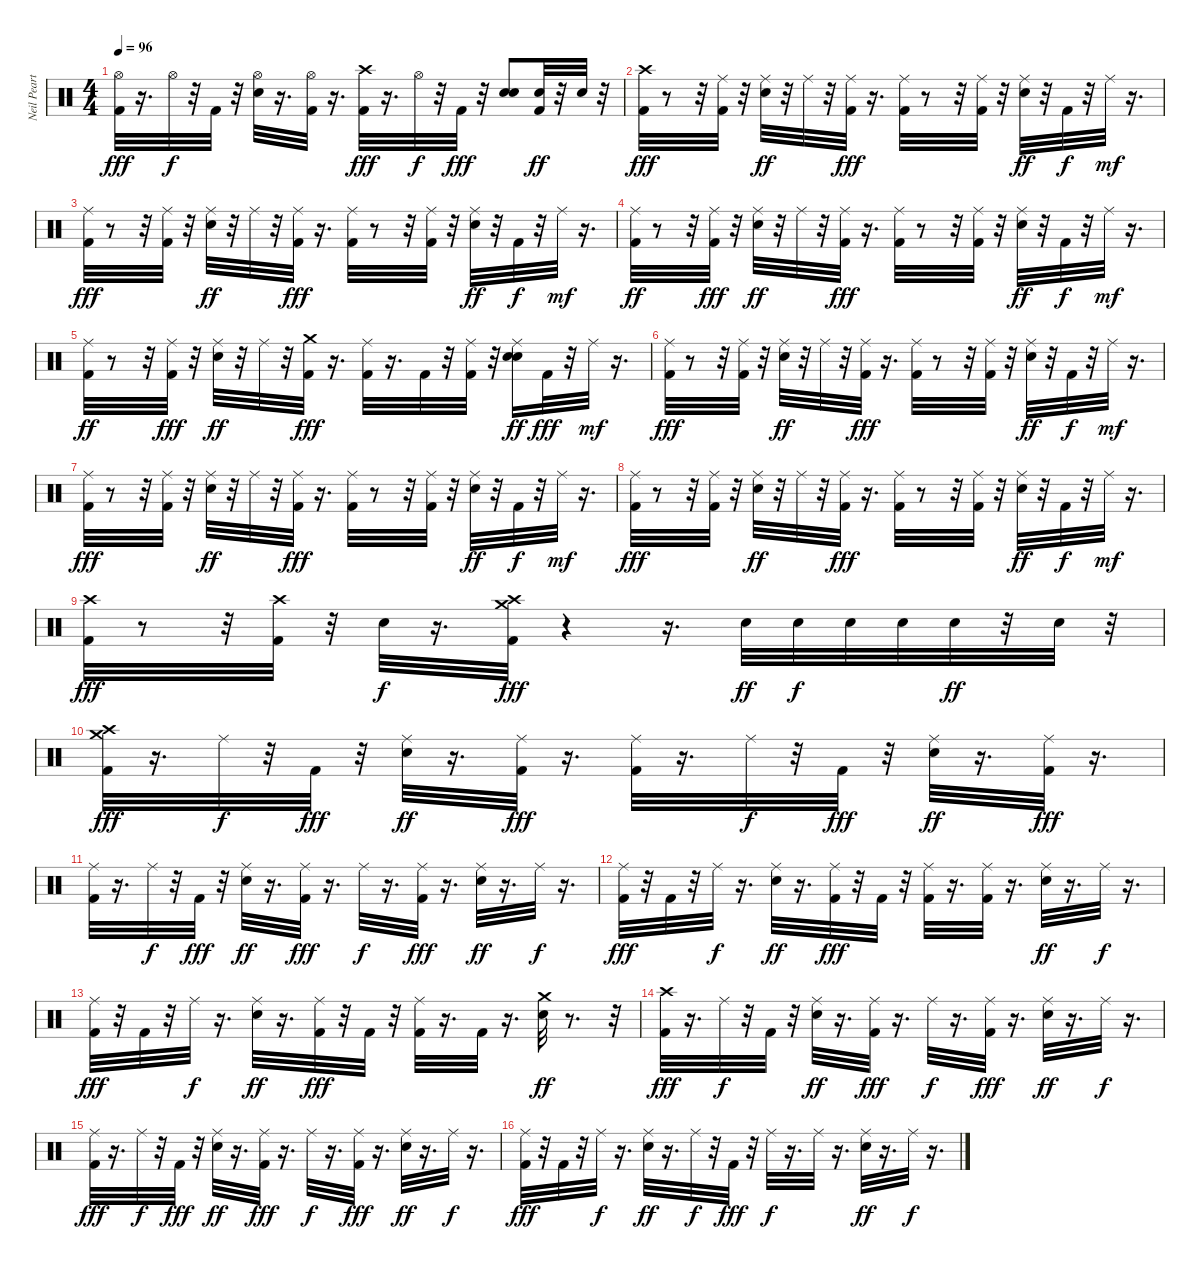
\track ("Neil Peart" "Neil Peart") {instrument percussion}
\staff {score}
\articulation defaults
\ts (4 4)
\tempo 96
\clef neutral
\ks c
("Hi-Hat (open)" "Kick (hit) 2").32{dy fff} r.16{d} "Hi-Hat (open)".32{dy f} r.32 "Kick (hit) 2".32 r.32 ("Hi-Hat (open)" "Snare (hit) 2").32 r.16{d} ("Kick (hit) 2" "Hi-Hat (open)").32 r.16{d} ("Crash high (hit)" "Kick (hit) 2").32{dy fff} r.16{d} "Hi-Hat (open)".32{dy f} r.32 "Kick (hit) 2".32{dy fff} r.32 ("Snare (hit) 2" "Snare (hit) 2").8 ("Snare (hit) 2" "Kick (hit) 2").32{dy ff} r.32 "Snare (hit) 2".32 r.32 |
("Crash high (hit)" "Kick (hit) 2").32{dy fff} r.8 r.32 ("Ride (middle)" "Kick (hit) 2").32 r.32 ("Ride (middle)" "Snare (hit) 2").32{dy ff} r.32 "Ride (middle)".32 r.32 ("Ride (middle)" "Kick (hit) 2").32{dy fff} r.16{d} ("Ride (middle)" "Kick (hit) 2").32 r.8 r.32 ("Ride (middle)" "Kick (hit) 2").32 r.32 ("Ride (middle)" "Snare (hit) 2").32{dy ff} r.32 "Kick (hit) 2".32{dy f} r.32 "Ride (middle)".32{dy mf} r.16{d} |
("Ride (middle)" "Kick (hit) 2").32{dy fff} r.8 r.32 ("Ride (middle)" "Kick (hit) 2").32 r.32 ("Ride (middle)" "Snare (hit) 2").32{dy ff} r.32 "Ride (middle)".32 r.32 ("Ride (middle)" "Kick (hit) 2").32{dy fff} r.16{d} ("Ride (middle)" "Kick (hit) 2").32 r.8 r.32 ("Ride (middle)" "Kick (hit) 2").32 r.32 ("Ride (middle)" "Snare (hit) 2").32{dy ff} r.32 "Kick (hit) 2".32{dy f} r.32 "Ride (middle)".32{dy mf} r.16{d} |
("Kick (hit) 2" "Ride (middle)").32{dy ff} r.8 r.32 ("Kick (hit) 2" "Ride (middle)").32{dy fff} r.32 ("Snare (hit) 2" "Ride (middle)").32{dy ff} r.32 "Ride (middle)".32 r.32 ("Kick (hit) 2" "Ride (middle)").32{dy fff} r.16{d} ("Kick (hit) 2" "Ride (middle)").32 r.8 r.32 ("Kick (hit) 2" "Ride (middle)").32 r.32 ("Snare (hit) 2" "Ride (middle)").32{dy ff} r.32 "Kick (hit) 2".32{dy f} r.32 "Ride (middle)".32{dy mf} r.16{d} |
("Kick (hit) 2" "Ride (middle)").32{dy ff} r.8 r.32 ("Kick (hit) 2" "Ride (middle)").32{dy fff} r.32 ("Snare (hit) 2" "Ride (middle)").32{dy ff} r.32 "Ride (middle)".32 r.32 ("Crash medium (hit)" "Kick (hit) 2").32{dy fff} r.16{d} ("Kick (hit) 2" "Ride (middle)").32 r.16{d} "Kick (hit) 2".32 r.32 ("Kick (hit) 2" "Ride (middle)").32 r.32 ("Snare (hit) 2" "Snare (hit) 2" "Ride (middle)").16{dy ff} "Kick (hit) 2".32{dy fff} r.32 "Ride (middle)".32{dy mf} r.16{d} |
("Ride (middle)" "Kick (hit) 2").32{dy fff} r.8 r.32 ("Ride (middle)" "Kick (hit) 2").32 r.32 ("Ride (middle)" "Snare (hit) 2").32{dy ff} r.32 "Ride (middle)".32 r.32 ("Ride (middle)" "Kick (hit) 2").32{dy fff} r.16{d} ("Ride (middle)" "Kick (hit) 2").32 r.8 r.32 ("Ride (middle)" "Kick (hit) 2").32 r.32 ("Ride (middle)" "Snare (hit) 2").32{dy ff} r.32 "Kick (hit) 2".32{dy f} r.32 "Ride (middle)".32{dy mf} r.16{d} |
("Ride (middle)" "Kick (hit) 2").32{dy fff} r.8 r.32 ("Ride (middle)" "Kick (hit) 2").32 r.32 ("Ride (middle)" "Snare (hit) 2").32{dy ff} r.32 "Ride (middle)".32 r.32 ("Ride (middle)" "Kick (hit) 2").32{dy fff} r.16{d} ("Ride (middle)" "Kick (hit) 2").32 r.8 r.32 ("Ride (middle)" "Kick (hit) 2").32 r.32 ("Ride (middle)" "Snare (hit) 2").32{dy ff} r.32 "Kick (hit) 2".32{dy f} r.32 "Ride (middle)".32{dy mf} r.16{d} |
("Ride (middle)" "Kick (hit) 2").32{dy fff} r.8 r.32 ("Ride (middle)" "Kick (hit) 2").32 r.32 ("Ride (middle)" "Snare (hit) 2").32{dy ff} r.32 "Ride (middle)".32 r.32 ("Ride (middle)" "Kick (hit) 2").32{dy fff} r.16{d} ("Ride (middle)" "Kick (hit) 2").32 r.8 r.32 ("Ride (middle)" "Kick (hit) 2").32 r.32 ("Ride (middle)" "Snare (hit) 2").32{dy ff} r.32 "Kick (hit) 2".32{dy f} r.32 "Ride (middle)".32{dy mf} r.16{d} |
("Crash high (hit)" "Kick (hit) 2").32{dy fff} r.8 r.32 ("Crash high (hit)" "Kick (hit) 2").32 r.32 "Snare (hit) 2".32{dy f} r.16{d} ("Crash medium (hit)" "Crash high (hit)" "Kick (hit) 2").32{dy fff} r.4 r.16{d} "Snare (hit) 2".32{dy ff} "Snare (hit) 2".32{dy f} "Snare (hit) 2".32 "Snare (hit) 2".32 "Snare (hit) 2".32{dy ff} r.32 "Snare (hit) 2".32 r.32 |
("Crash medium (hit)" "Crash high (hit)" "Kick (hit) 2").32{dy fff} r.16{d} "Ride (middle)".32{dy f} r.32 "Kick (hit) 2".32{dy fff} r.32 ("Ride (middle)" "Snare (hit) 2").32{dy ff} r.16{d} ("Ride (middle)" "Kick (hit) 2").32{dy fff} r.16{d} ("Ride (middle)" "Kick (hit) 2").32 r.16{d} "Ride (middle)".32{dy f} r.32 "Kick (hit) 2".32{dy fff} r.32 ("Ride (middle)" "Snare (hit) 2").32{dy ff} r.16{d} ("Ride (middle)" "Kick (hit) 2").32{dy fff} r.16{d} |
("Ride (middle)" "Kick (hit) 2").32 r.16{d} "Ride (middle)".32{dy f} r.32 "Kick (hit) 2".32{dy fff} r.32 ("Ride (middle)" "Snare (hit) 2").32{dy ff} r.16{d} ("Ride (middle)" "Kick (hit) 2").32{dy fff} r.16{d} "Ride (middle)".32{dy f} r.16{d} ("Ride (middle)" "Kick (hit) 2").32{dy fff} r.16{d} ("Ride (middle)" "Snare (hit) 2").32{dy ff} r.16{d} "Ride (middle)".32{dy f} r.16{d} |
("Ride (middle)" "Kick (hit) 2").32{dy fff} r.32 "Kick (hit) 2".32 r.32 "Ride (middle)".32{dy f} r.16{d} ("Ride (middle)" "Snare (hit) 2").32{dy ff} r.16{d} ("Ride (middle)" "Kick (hit) 2").32{dy fff} r.32 "Kick (hit) 2".32 r.32 ("Ride (middle)" "Kick (hit) 2").32 r.16{d} ("Ride (middle)" "Kick (hit) 2").32 r.16{d} ("Ride (middle)" "Snare (hit) 2").32{dy ff} r.16{d} "Ride (middle)".32{dy f} r.16{d} |
("Ride (middle)" "Kick (hit) 2").32{dy fff} r.32 "Kick (hit) 2".32 r.32 "Ride (middle)".32{dy f} r.16{d} ("Ride (middle)" "Snare (hit) 2").32{dy ff} r.16{d} ("Ride (middle)" "Kick (hit) 2").32{dy fff} r.32 "Kick (hit) 2".32 r.32 ("Ride (middle)" "Kick (hit) 2").32 r.16{d} "Kick (hit) 2".32 r.16{d} ("Crash medium (hit)" "Snare (hit) 2").32{dy ff} r.8{d} r.32 |
("Kick (hit) 2" "Crash high (hit)").32{dy fff} r.16{d} "Ride (middle)".32{dy f} r.32 "Kick (hit) 2".32 r.32 ("Ride (middle)" "Snare (hit) 2").32{dy ff} r.16{d} ("Ride (middle)" "Kick (hit) 2").32{dy fff} r.16{d} "Ride (middle)".32{dy f} r.16{d} ("Ride (middle)" "Kick (hit) 2").32{dy fff} r.16{d} ("Ride (middle)" "Snare (hit) 2").32{dy ff} r.16{d} "Ride (middle)".32{dy f} r.16{d} |
("Ride (middle)" "Kick (hit) 2").32{dy fff} r.16{d} "Ride (middle)".32{dy f} r.32 "Kick (hit) 2".32{dy fff} r.32 ("Ride (middle)" "Snare (hit) 2").32{dy ff} r.16{d} ("Kick (hit) 2" "Ride (middle)").32{dy fff} r.16{d} "Ride (middle)".32{dy f} r.16{d} ("Ride (middle)" "Kick (hit) 2").32{dy fff} r.16{d} ("Ride (middle)" "Snare (hit) 2").32{dy ff} r.16{d} "Ride (middle)".32{dy f} r.16{d} |
("Ride (middle)" "Kick (hit) 2").32{dy fff} r.32 "Kick (hit) 2".32 r.32 "Ride (middle)".32{dy f} r.16{d} ("Ride (middle)" "Snare (hit) 2").32{dy ff} r.16{d} "Ride (middle)".32{dy f} r.32 "Kick (hit) 2".32{dy fff} r.32 "Ride (middle)".32{dy f} r.16{d} "Ride (middle)".32 r.16{d} ("Ride (middle)" "Snare (hit) 2").32{dy ff} r.16{d} "Ride (middle)".32{dy f} r.16{d}
